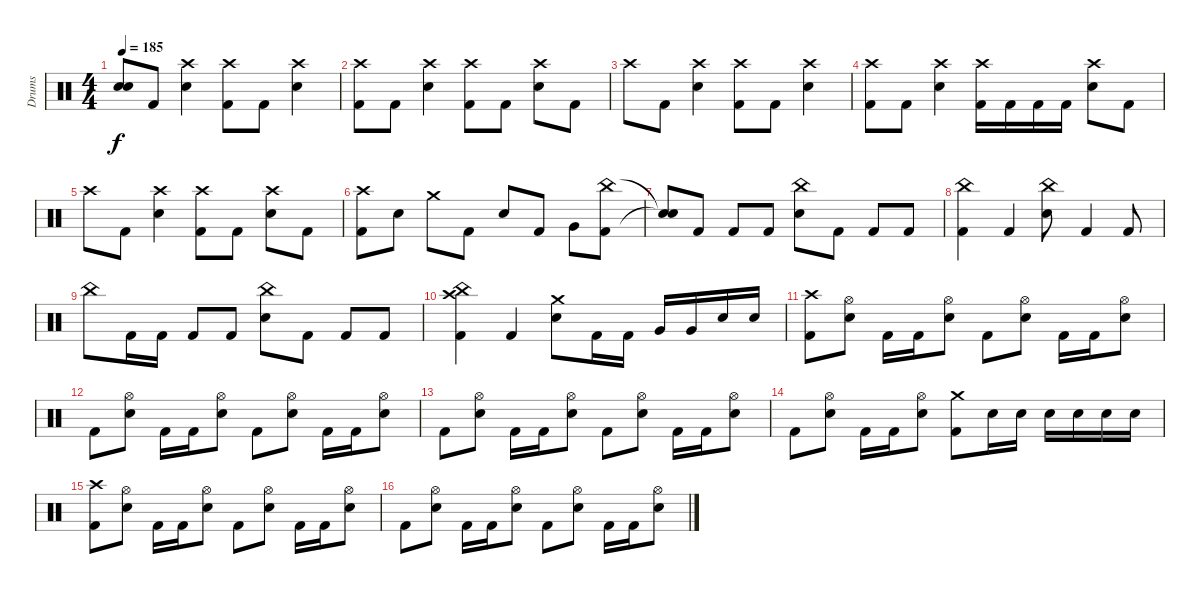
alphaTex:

\track ("Drums" "Drums") {instrument percussion}
\staff {score}
\articulation defaults
\ts (4 4)
\tempo 185
\clef neutral
\ks c
("Snare (hit)"{t} "Snare (hit)"{t}).8{dy f} "Kick (hit) 2".8 ("Crash high (hit)" "Electric Snare (hit)").4 ("Crash high (hit)" "Kick (hit) 2").8 "Kick (hit) 2".8 ("Crash high (hit)" "Electric Snare (hit)").4 |
("Crash high (hit)" "Kick (hit) 2").8 "Kick (hit) 2".8 ("Crash high (hit)" "Electric Snare (hit)").4 ("Crash high (hit)" "Kick (hit) 2").8 "Kick (hit) 2".8 ("Crash high (hit)" "Electric Snare (hit)").8 "Kick (hit) 2".8 |
"Crash high (hit)".8 "Kick (hit) 2".8 ("Crash high (hit)" "Electric Snare (hit)").4 ("Crash high (hit)" "Kick (hit) 2").8 "Kick (hit) 2".8 ("Crash high (hit)" "Electric Snare (hit)").4 |
("Crash high (hit)" "Kick (hit) 2").8 "Kick (hit) 2".8 ("Crash high (hit)" "Electric Snare (hit)").4 ("Crash high (hit)" "Kick (hit) 2").16 "Kick (hit) 2".16 "Kick (hit) 2".16 "Kick (hit) 2".16 ("Crash high (hit)" "Electric Snare (hit)").8 "Kick (hit) 2".8 |
"Crash high (hit)".8 "Kick (hit) 2".8 ("Crash high (hit)" "Electric Snare (hit)").4 ("Crash high (hit)" "Kick (hit) 2").8 "Kick (hit) 2".8 ("Crash high (hit)" "Electric Snare (hit)").8 "Kick (hit) 2".8 |
("Crash high (hit)" "Kick (hit) 2").8 "Electric Snare (hit)".8 "Crash medium (hit)".8 "Kick (hit) 2".8 "Electric Snare (hit)".8 "Kick (hit) 2".8 "Very Low Tom (hit)".8 ("China (hit)" "Kick (hit) 2").8 |
("Snare (hit)"{t} "Snare (hit)"{t}).8 "Kick (hit) 2".8 "Kick (hit) 2".8 "Kick (hit) 2".8 ("China (hit)" "Electric Snare (hit)").8 "Kick (hit) 2".8 "Kick (hit) 2".8 "Kick (hit) 2".8 |
("China (hit)" "Kick (hit) 2").4 "Kick (hit) 2".4 ("China (hit)" "Electric Snare (hit)").8 "Kick (hit) 2".4 "Kick (hit) 2".8 |
"China (hit)".8 "Kick (hit) 2".16 "Kick (hit) 2".16 "Kick (hit) 2".8 "Kick (hit) 2".8 ("China (hit)" "Electric Snare (hit)").8 "Kick (hit) 2".8 "Kick (hit) 2".8 "Kick (hit) 2".8 |
("China (hit)" "Crash high (hit)" "Kick (hit) 2").4 "Kick (hit) 2".4 ("Crash medium (hit)" "Electric Snare (hit)").8 "Kick (hit) 2".16 "Kick (hit) 2".16 "Very Low Tom (hit)".16 "Very Low Tom (hit)".16 "Electric Snare (hit)".16 "Electric Snare (hit)".16 |
("Crash high (hit)" "Kick (hit) 2").8 ("Hi-Hat (open)" "Electric Snare (hit)").8 "Kick (hit) 2".16 "Kick (hit) 2".16 ("Hi-Hat (open)" "Electric Snare (hit)").8 "Kick (hit) 2".8 ("Hi-Hat (open)" "Electric Snare (hit)").8 "Kick (hit) 2".16 "Kick (hit) 2".16 ("Hi-Hat (open)" "Electric Snare (hit)").8 |
"Kick (hit) 2".8 ("Hi-Hat (open)" "Electric Snare (hit)").8 "Kick (hit) 2".16 "Kick (hit) 2".16 ("Hi-Hat (open)" "Electric Snare (hit)").8 "Kick (hit) 2".8 ("Hi-Hat (open)" "Electric Snare (hit)").8 "Kick (hit) 2".16 "Kick (hit) 2".16 ("Hi-Hat (open)" "Electric Snare (hit)").8 |
"Kick (hit) 2".8 ("Hi-Hat (open)" "Electric Snare (hit)").8 "Kick (hit) 2".16 "Kick (hit) 2".16 ("Hi-Hat (open)" "Electric Snare (hit)").8 "Kick (hit) 2".8 ("Hi-Hat (open)" "Electric Snare (hit)").8 "Kick (hit) 2".16 "Kick (hit) 2".16 ("Hi-Hat (open)" "Electric Snare (hit)").8 |
"Kick (hit) 2".8 ("Hi-Hat (open)" "Electric Snare (hit)").8 "Kick (hit) 2".16 "Kick (hit) 2".16 ("Hi-Hat (open)" "Electric Snare (hit)").8 ("Crash medium (hit)" "Kick (hit) 2").8 "Electric Snare (hit)".16 "Electric Snare (hit)".16 "Electric Snare (hit)".16 "Electric Snare (hit)".16 "Electric Snare (hit)".16 "Electric Snare (hit)".16 |
("Crash high (hit)" "Kick (hit) 2").8 ("Hi-Hat (open)" "Electric Snare (hit)").8 "Kick (hit) 2".16 "Kick (hit) 2".16 ("Hi-Hat (open)" "Electric Snare (hit)").8 "Kick (hit) 2".8 ("Hi-Hat (open)" "Electric Snare (hit)").8 "Kick (hit) 2".16 "Kick (hit) 2".16 ("Hi-Hat (open)" "Electric Snare (hit)").8 |
"Kick (hit) 2".8 ("Hi-Hat (open)" "Electric Snare (hit)").8 "Kick (hit) 2".16 "Kick (hit) 2".16 ("Hi-Hat (open)" "Electric Snare (hit)").8 "Kick (hit) 2".8 ("Hi-Hat (open)" "Electric Snare (hit)").8 "Kick (hit) 2".16 "Kick (hit) 2".16 ("Hi-Hat (open)" "Electric Snare (hit)").8
